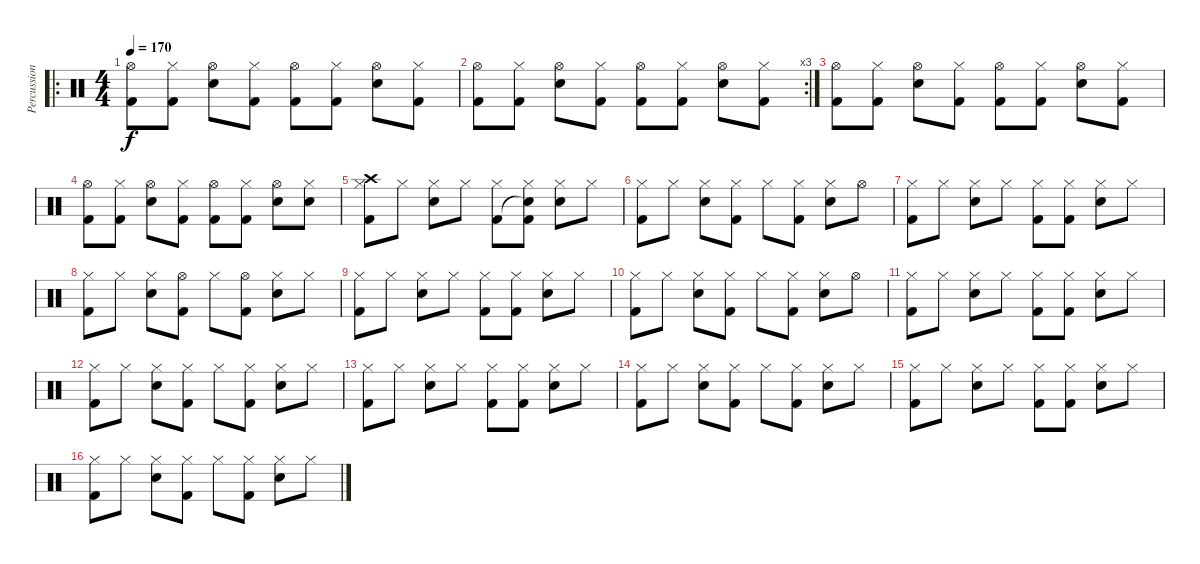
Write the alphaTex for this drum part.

\track ("Percussion" "Percussion") {instrument percussion}
\staff {score}
\articulation defaults
\ro
\ts (4 4)
\tempo 170
\clef neutral
\ks c
("Hi-Hat (open)" "Kick (hit) 2").8{dy f} ("Hi-Hat (closed)" "Kick (hit) 2").8 ("Hi-Hat (open)" "Electric Snare (hit)").8 ("Hi-Hat (closed)" "Kick (hit) 2").8 ("Hi-Hat (open)" "Kick (hit) 2").8 ("Hi-Hat (closed)" "Kick (hit) 2").8 ("Hi-Hat (open)" "Electric Snare (hit)").8 ("Hi-Hat (closed)" "Kick (hit) 2").8 |
\rc 3
("Hi-Hat (open)" "Kick (hit) 2").8 ("Hi-Hat (closed)" "Kick (hit) 2").8 ("Hi-Hat (open)" "Electric Snare (hit)").8 ("Hi-Hat (closed)" "Kick (hit) 2").8 ("Hi-Hat (open)" "Kick (hit) 2").8 ("Hi-Hat (closed)" "Kick (hit) 2").8 ("Hi-Hat (open)" "Electric Snare (hit)").8 ("Hi-Hat (closed)" "Kick (hit) 2").8 |
("Hi-Hat (open)" "Kick (hit) 2").8 ("Hi-Hat (closed)" "Kick (hit) 2").8 ("Hi-Hat (open)" "Electric Snare (hit)").8 ("Hi-Hat (closed)" "Kick (hit) 2").8 ("Hi-Hat (open)" "Kick (hit) 2").8 ("Hi-Hat (closed)" "Kick (hit) 2").8 ("Hi-Hat (open)" "Electric Snare (hit)").8 ("Hi-Hat (closed)" "Kick (hit) 2").8 |
("Hi-Hat (open)" "Kick (hit) 2").8 ("Hi-Hat (closed)" "Kick (hit) 2").8 ("Hi-Hat (open)" "Electric Snare (hit)").8 ("Hi-Hat (closed)" "Kick (hit) 2").8 ("Hi-Hat (open)" "Kick (hit) 2").8 ("Hi-Hat (closed)" "Kick (hit) 2").8 ("Hi-Hat (open)" "Electric Snare (hit)").8 ("Hi-Hat (closed)" "Snare (hit)").8 |
("Hi-Hat (closed)" "Crash high (hit)" "Kick (hit) 2").8 "Hi-Hat (closed)".8 ("Hi-Hat (closed)" "Electric Snare (hit)").8 "Hi-Hat (closed)".8 ("Hi-Hat (closed)" "Kick (hit) 2").8 ("Hi-Hat (closed)" "Snare (hit)"{t} "Kick (hit) 2").8 ("Hi-Hat (closed)" "Electric Snare (hit)").8 "Hi-Hat (closed)".8 |
("Hi-Hat (closed)" "Kick (hit) 2").8 "Hi-Hat (closed)".8 ("Hi-Hat (closed)" "Electric Snare (hit)").8 ("Hi-Hat (closed)" "Kick (hit) 2").8 "Hi-Hat (closed)".8 ("Hi-Hat (closed)" "Kick (hit) 2").8 ("Hi-Hat (closed)" "Electric Snare (hit)").8 "Hi-Hat (open)".8 |
("Hi-Hat (closed)" "Kick (hit) 2").8 "Hi-Hat (closed)".8 ("Hi-Hat (closed)" "Electric Snare (hit)").8 "Hi-Hat (closed)".8 ("Hi-Hat (closed)" "Kick (hit) 2").8 ("Hi-Hat (closed)" "Kick (hit) 2").8 ("Hi-Hat (closed)" "Electric Snare (hit)").8 "Hi-Hat (closed)".8 |
("Hi-Hat (closed)" "Kick (hit) 2").8 "Hi-Hat (closed)".8 ("Hi-Hat (closed)" "Electric Snare (hit)").8 ("Hi-Hat (open)" "Kick (hit) 2").8 "Hi-Hat (closed)".8 ("Hi-Hat (open)" "Kick (hit) 2").8 ("Hi-Hat (closed)" "Electric Snare (hit)").8 "Hi-Hat (closed)".8 |
("Hi-Hat (closed)" "Kick (hit) 2").8 "Hi-Hat (closed)".8 ("Hi-Hat (closed)" "Electric Snare (hit)").8 "Hi-Hat (closed)".8 ("Hi-Hat (closed)" "Kick (hit) 2").8 ("Hi-Hat (closed)" "Kick (hit) 2").8 ("Hi-Hat (closed)" "Electric Snare (hit)").8 "Hi-Hat (closed)".8 |
("Hi-Hat (closed)" "Kick (hit) 2").8 "Hi-Hat (closed)".8 ("Hi-Hat (closed)" "Electric Snare (hit)").8 ("Hi-Hat (closed)" "Kick (hit) 2").8 "Hi-Hat (closed)".8 ("Hi-Hat (closed)" "Kick (hit) 2").8 ("Hi-Hat (closed)" "Electric Snare (hit)").8 "Hi-Hat (open)".8 |
("Hi-Hat (closed)" "Kick (hit) 2").8 "Hi-Hat (closed)".8 ("Hi-Hat (closed)" "Electric Snare (hit)").8 "Hi-Hat (closed)".8 ("Hi-Hat (closed)" "Kick (hit) 2").8 ("Hi-Hat (closed)" "Kick (hit) 2").8 ("Hi-Hat (closed)" "Electric Snare (hit)").8 "Hi-Hat (closed)".8 |
("Hi-Hat (closed)" "Kick (hit) 2").8 "Hi-Hat (closed)".8 ("Hi-Hat (closed)" "Electric Snare (hit)").8 ("Hi-Hat (closed)" "Kick (hit) 2").8 "Hi-Hat (closed)".8 ("Hi-Hat (closed)" "Kick (hit) 2").8 ("Hi-Hat (closed)" "Electric Snare (hit)").8 "Hi-Hat (closed)".8 |
("Hi-Hat (closed)" "Kick (hit) 2").8 "Hi-Hat (closed)".8 ("Hi-Hat (closed)" "Electric Snare (hit)").8 "Hi-Hat (closed)".8 ("Hi-Hat (closed)" "Kick (hit) 2").8 ("Hi-Hat (closed)" "Kick (hit) 2").8 ("Hi-Hat (closed)" "Electric Snare (hit)").8 "Hi-Hat (closed)".8 |
("Hi-Hat (closed)" "Kick (hit) 2").8 "Hi-Hat (closed)".8 ("Hi-Hat (closed)" "Electric Snare (hit)").8 ("Hi-Hat (closed)" "Kick (hit) 2").8 "Hi-Hat (closed)".8 ("Hi-Hat (closed)" "Kick (hit) 2").8 ("Hi-Hat (closed)" "Electric Snare (hit)").8 "Hi-Hat (closed)".8 |
("Hi-Hat (closed)" "Kick (hit) 2").8 "Hi-Hat (closed)".8 ("Hi-Hat (closed)" "Electric Snare (hit)").8 "Hi-Hat (closed)".8 ("Hi-Hat (closed)" "Kick (hit) 2").8 ("Hi-Hat (closed)" "Kick (hit) 2").8 ("Hi-Hat (closed)" "Electric Snare (hit)").8 "Hi-Hat (closed)".8 |
("Hi-Hat (closed)" "Kick (hit) 2").8 "Hi-Hat (closed)".8 ("Hi-Hat (closed)" "Electric Snare (hit)").8 ("Hi-Hat (closed)" "Kick (hit) 2").8 "Hi-Hat (closed)".8 ("Hi-Hat (closed)" "Kick (hit) 2").8 ("Hi-Hat (closed)" "Electric Snare (hit)").8 "Hi-Hat (closed)".8
